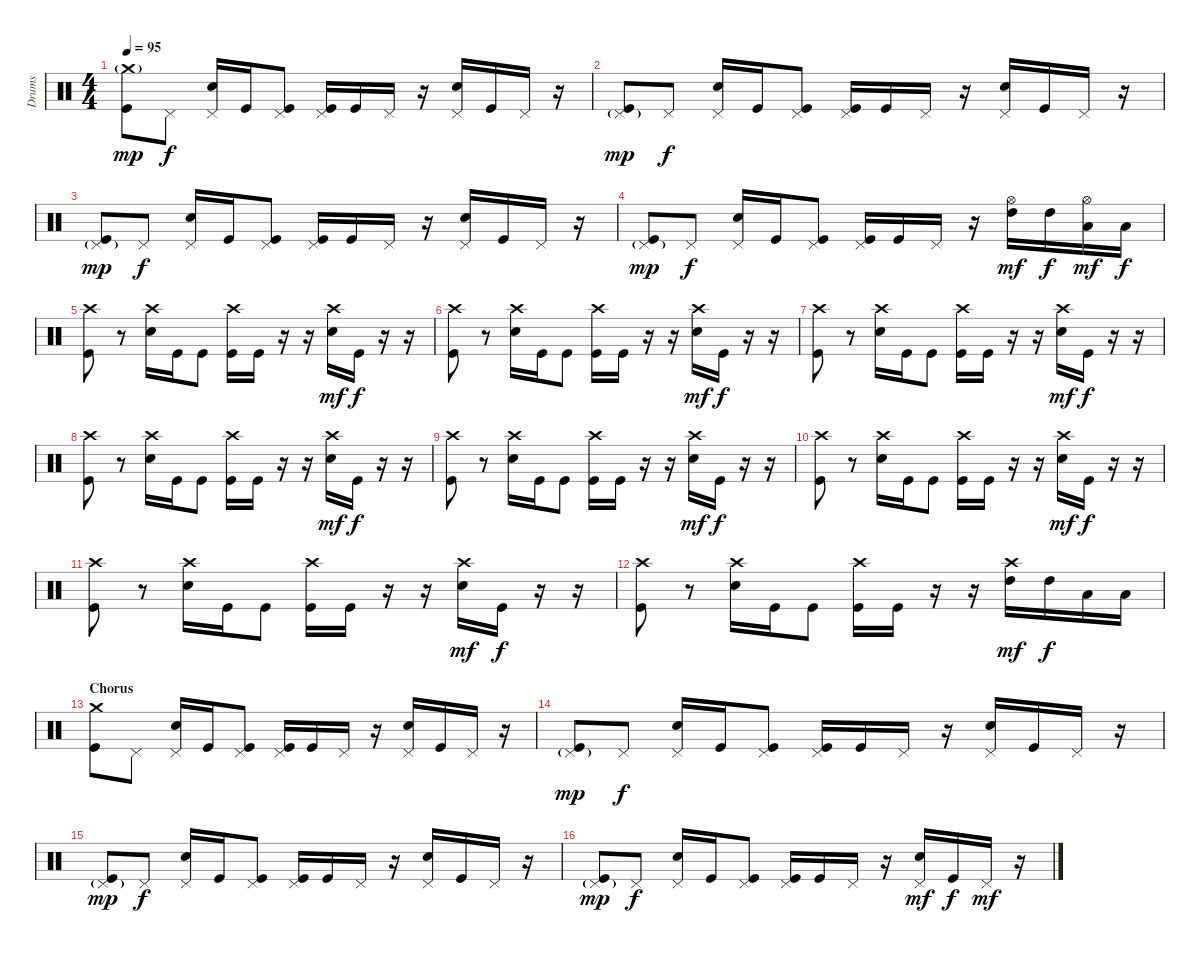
\track ("Drums" "Drums") {instrument percussion}
\staff {score}
\articulation defaults
\ts (4 4)
\tempo 95
\clef neutral
\ks c
("Crash medium (hit)"{g} "Kick (hit)").8{dy mp} "Pedal Hi-Hat (hit)".8{dy f} ("Pedal Hi-Hat (hit)" "Snare (hit) 2").16 "Kick (hit)".16 ("Pedal Hi-Hat (hit)" "Kick (hit)").8 ("Pedal Hi-Hat (hit)" "Kick (hit)").16 "Kick (hit)".16 "Pedal Hi-Hat (hit)".16 r.16 ("Pedal Hi-Hat (hit)" "Snare (hit) 2").16 "Kick (hit)".16 "Pedal Hi-Hat (hit)".16 r.16 |
("Pedal Hi-Hat (hit)"{g} "Kick (hit)").8{dy mp} "Pedal Hi-Hat (hit)".8{dy f} ("Pedal Hi-Hat (hit)" "Snare (hit) 2").16 "Kick (hit)".16 ("Pedal Hi-Hat (hit)" "Kick (hit)").8 ("Pedal Hi-Hat (hit)" "Kick (hit)").16 "Kick (hit)".16 "Pedal Hi-Hat (hit)".16 r.16 ("Pedal Hi-Hat (hit)" "Snare (hit) 2").16 "Kick (hit)".16 "Pedal Hi-Hat (hit)".16 r.16 |
("Pedal Hi-Hat (hit)"{g} "Kick (hit)").8{dy mp} "Pedal Hi-Hat (hit)".8{dy f} ("Pedal Hi-Hat (hit)" "Snare (hit) 2").16 "Kick (hit)".16 ("Pedal Hi-Hat (hit)" "Kick (hit)").8 ("Pedal Hi-Hat (hit)" "Kick (hit)").16 "Kick (hit)".16 "Pedal Hi-Hat (hit)".16 r.16 ("Pedal Hi-Hat (hit)" "Snare (hit) 2").16 "Kick (hit)".16 "Pedal Hi-Hat (hit)".16 r.16 |
("Pedal Hi-Hat (hit)"{g} "Kick (hit)").8{dy mp} "Pedal Hi-Hat (hit)".8{dy f} ("Pedal Hi-Hat (hit)" "Snare (hit) 2").16 "Kick (hit)".16 ("Pedal Hi-Hat (hit)" "Kick (hit)").8 ("Pedal Hi-Hat (hit)" "Kick (hit)").16 "Kick (hit)".16 "Pedal Hi-Hat (hit)".16 r.16 ("Hi-Hat (open)" "High Tom (hit)").16{dy mf} "High Tom (hit)".16{dy f} ("Hi-Hat (open)" "Low Tom (hit)").16{dy mf} "Low Tom (hit)".16{dy f} |
\section ("" "")
("Crash high (hit)" "Kick (hit)").8 r.8 ("Crash high (hit)" "Snare (hit) 2").16 "Kick (hit)".16 "Kick (hit)".8 ("Crash high (hit)" "Kick (hit)").16 "Kick (hit)".16 r.16 r.16 ("Crash high (hit)" "Snare (hit) 2").16{dy mf} "Kick (hit)".16{dy f} r.16 r.16 |
("Crash high (hit)" "Kick (hit)").8 r.8 ("Crash high (hit)" "Snare (hit) 2").16 "Kick (hit)".16 "Kick (hit)".8 ("Crash high (hit)" "Kick (hit)").16 "Kick (hit)".16 r.16 r.16 ("Crash high (hit)" "Snare (hit) 2").16{dy mf} "Kick (hit)".16{dy f} r.16 r.16 |
("Crash high (hit)" "Kick (hit)").8 r.8 ("Crash high (hit)" "Snare (hit) 2").16 "Kick (hit)".16 "Kick (hit)".8 ("Crash high (hit)" "Kick (hit)").16 "Kick (hit)".16 r.16 r.16 ("Crash high (hit)" "Snare (hit) 2").16{dy mf} "Kick (hit)".16{dy f} r.16 r.16 |
("Crash high (hit)" "Kick (hit)").8 r.8 ("Crash high (hit)" "Snare (hit) 2").16 "Kick (hit)".16 "Kick (hit)".8 ("Crash high (hit)" "Kick (hit)").16 "Kick (hit)".16 r.16 r.16 ("Crash high (hit)" "Snare (hit) 2").16{dy mf} "Kick (hit)".16{dy f} r.16 r.16 |
("Crash high (hit)" "Kick (hit)").8 r.8 ("Crash high (hit)" "Snare (hit) 2").16 "Kick (hit)".16 "Kick (hit)".8 ("Crash high (hit)" "Kick (hit)").16 "Kick (hit)".16 r.16 r.16 ("Crash high (hit)" "Snare (hit) 2").16{dy mf} "Kick (hit)".16{dy f} r.16 r.16 |
("Crash high (hit)" "Kick (hit)").8 r.8 ("Crash high (hit)" "Snare (hit) 2").16 "Kick (hit)".16 "Kick (hit)".8 ("Crash high (hit)" "Kick (hit)").16 "Kick (hit)".16 r.16 r.16 ("Crash high (hit)" "Snare (hit) 2").16{dy mf} "Kick (hit)".16{dy f} r.16 r.16 |
("Crash high (hit)" "Kick (hit)").8 r.8 ("Crash high (hit)" "Snare (hit) 2").16 "Kick (hit)".16 "Kick (hit)".8 ("Crash high (hit)" "Kick (hit)").16 "Kick (hit)".16 r.16 r.16 ("Crash high (hit)" "Snare (hit) 2").16{dy mf} "Kick (hit)".16{dy f} r.16 r.16 |
("Crash high (hit)" "Kick (hit)").8 r.8 ("Crash high (hit)" "Snare (hit) 2").16 "Kick (hit)".16 "Kick (hit)".8 ("Crash high (hit)" "Kick (hit)").16 "Kick (hit)".16 r.16 r.16 ("Crash high (hit)" "High Tom (hit)").16{dy mf} "High Tom (hit)".16{dy f} "Low Tom (hit)".16 "Low Tom (hit)".16 |
\section ("" "Chorus")
("Crash medium (hit)" "Kick (hit)").8 "Pedal Hi-Hat (hit)".8 ("Pedal Hi-Hat (hit)" "Snare (hit) 2").16 "Kick (hit)".16 ("Pedal Hi-Hat (hit)" "Kick (hit)").8 ("Pedal Hi-Hat (hit)" "Kick (hit)").16 "Kick (hit)".16 "Pedal Hi-Hat (hit)".16 r.16 ("Pedal Hi-Hat (hit)" "Snare (hit) 2").16 "Kick (hit)".16 "Pedal Hi-Hat (hit)".16 r.16 |
("Pedal Hi-Hat (hit)"{g} "Kick (hit)").8{dy mp} "Pedal Hi-Hat (hit)".8{dy f} ("Pedal Hi-Hat (hit)" "Snare (hit) 2").16 "Kick (hit)".16 ("Pedal Hi-Hat (hit)" "Kick (hit)").8 ("Pedal Hi-Hat (hit)" "Kick (hit)").16 "Kick (hit)".16 "Pedal Hi-Hat (hit)".16 r.16 ("Pedal Hi-Hat (hit)" "Snare (hit) 2").16 "Kick (hit)".16 "Pedal Hi-Hat (hit)".16 r.16 |
("Pedal Hi-Hat (hit)"{g} "Kick (hit)").8{dy mp} "Pedal Hi-Hat (hit)".8{dy f} ("Pedal Hi-Hat (hit)" "Snare (hit) 2").16 "Kick (hit)".16 ("Pedal Hi-Hat (hit)" "Kick (hit)").8 ("Pedal Hi-Hat (hit)" "Kick (hit)").16 "Kick (hit)".16 "Pedal Hi-Hat (hit)".16 r.16 ("Pedal Hi-Hat (hit)" "Snare (hit) 2").16 "Kick (hit)".16 "Pedal Hi-Hat (hit)".16 r.16 |
("Pedal Hi-Hat (hit)"{g} "Kick (hit)").8{dy mp} "Pedal Hi-Hat (hit)".8{dy f} ("Pedal Hi-Hat (hit)" "Snare (hit) 2").16 "Kick (hit)".16 ("Pedal Hi-Hat (hit)" "Kick (hit)").8 ("Pedal Hi-Hat (hit)" "Kick (hit)").16 "Kick (hit)".16 "Pedal Hi-Hat (hit)".16 r.16 ("Pedal Hi-Hat (hit)" "Snare (hit) 2").16{dy mf} "Kick (hit)".16{dy f} "Pedal Hi-Hat (hit)".16{dy mf} r.16
